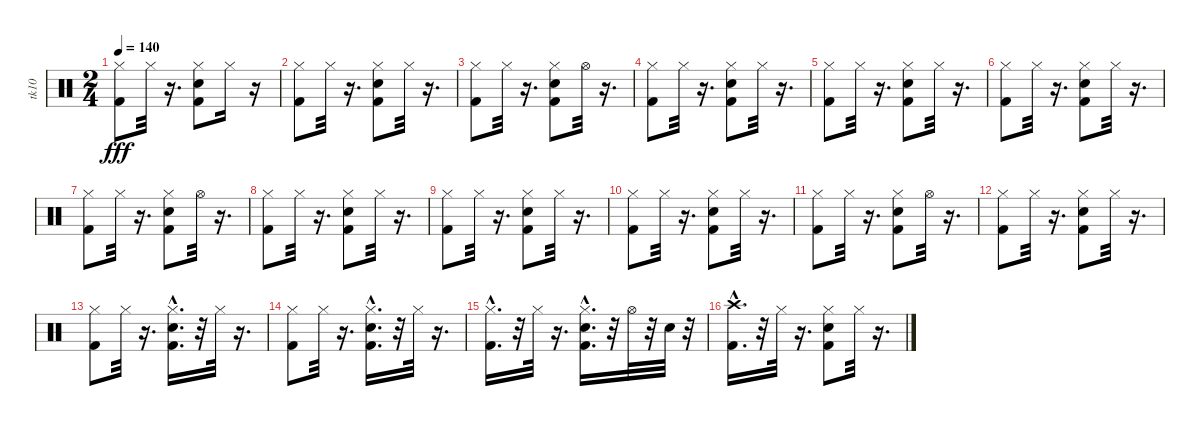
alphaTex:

\track ("tk10" "tk10") {instrument percussion}
\staff {score}
\articulation defaults
\ts (2 4)
\tempo 140
\clef neutral
\ks c
("Kick (hit) 2" "Hi-Hat (closed)").8{dy fff} "Hi-Hat (closed)".32 r.16{d} ("Snare (hit) 2" "Kick (hit) 2" "Hi-Hat (closed)").8 "Hi-Hat (closed)".16 r.16 |
("Kick (hit) 2" "Hi-Hat (closed)").8 "Hi-Hat (closed)".32 r.16{d} ("Kick (hit) 2" "Hi-Hat (closed)" "Snare (hit) 2").8 "Hi-Hat (closed)".32 r.16{d} |
("Kick (hit) 2" "Hi-Hat (closed)").8 "Hi-Hat (closed)".32 r.16{d} ("Kick (hit) 2" "Snare (hit) 2" "Hi-Hat (closed)").8 "Hi-Hat (open)".32 r.16{d} |
("Kick (hit) 2" "Hi-Hat (closed)").8 "Hi-Hat (closed)".32 r.16{d} ("Snare (hit) 2" "Kick (hit) 2" "Hi-Hat (closed)").8 "Hi-Hat (closed)".32 r.16{d} |
("Kick (hit) 2" "Hi-Hat (closed)").8 "Hi-Hat (closed)".32 r.16{d} ("Snare (hit) 2" "Kick (hit) 2" "Hi-Hat (closed)").8 "Hi-Hat (closed)".32 r.16{d} |
("Kick (hit) 2" "Hi-Hat (closed)").8 "Hi-Hat (closed)".32 r.16{d} ("Hi-Hat (closed)" "Snare (hit) 2" "Kick (hit) 2").8 "Hi-Hat (closed)".32 r.16{d} |
("Kick (hit) 2" "Hi-Hat (closed)").8 "Hi-Hat (closed)".32 r.16{d} ("Hi-Hat (closed)" "Snare (hit) 2" "Kick (hit) 2").8 "Hi-Hat (open)".32 r.16{d} |
("Kick (hit) 2" "Hi-Hat (closed)").8 "Hi-Hat (closed)".32 r.16{d} ("Snare (hit) 2" "Kick (hit) 2" "Hi-Hat (closed)").8 "Hi-Hat (closed)".32 r.16{d} |
("Kick (hit) 2" "Hi-Hat (closed)").8 "Hi-Hat (closed)".32 r.16{d} ("Snare (hit) 2" "Kick (hit) 2" "Hi-Hat (closed)").8 "Hi-Hat (closed)".32 r.16{d} |
("Kick (hit) 2" "Hi-Hat (closed)").8 "Hi-Hat (closed)".32 r.16{d} ("Kick (hit) 2" "Hi-Hat (closed)" "Snare (hit) 2").8 "Hi-Hat (closed)".32 r.16{d} |
("Kick (hit) 2" "Hi-Hat (closed)").8 "Hi-Hat (closed)".32 r.16{d} ("Kick (hit) 2" "Hi-Hat (closed)" "Snare (hit) 2").8 "Hi-Hat (open)".32 r.16{d} |
("Kick (hit) 2" "Hi-Hat (closed)").8 "Hi-Hat (closed)".32 r.16{d} ("Snare (hit) 2" "Kick (hit) 2" "Hi-Hat (closed)").8 "Hi-Hat (closed)".32 r.16{d} |
("Kick (hit) 2" "Hi-Hat (closed)").8 "Hi-Hat (closed)".32 r.16{d} ("Hi-Hat (closed)" "Snare (hit) 2"{hac} "Kick (hit) 2"{hac}).16{d} r.32 "Hi-Hat (closed)".32 r.16{d} |
("Kick (hit) 2" "Hi-Hat (closed)").8 "Hi-Hat (closed)".32 r.16{d} ("Snare (hit) 2"{hac} "Kick (hit) 2"{hac} "Hi-Hat (closed)").16{d} r.32 "Hi-Hat (closed)".32 r.16{d} |
("Kick (hit) 2"{hac} "Hi-Hat (closed)").16{d} r.32 "Hi-Hat (closed)".32 r.16{d} ("Snare (hit) 2"{hac} "Kick (hit) 2"{hac} "Hi-Hat (closed)").16{d} r.32 "Hi-Hat (open)".32 r.32 "Snare (hit) 2".32 r.32 |
("Kick (hit) 2"{hac} "Crash high (hit)").16{d} r.32 "Hi-Hat (closed)".32 r.16{d} ("Kick (hit) 2" "Snare (hit) 2" "Hi-Hat (closed)").8 "Hi-Hat (closed)".32 r.16{d}
